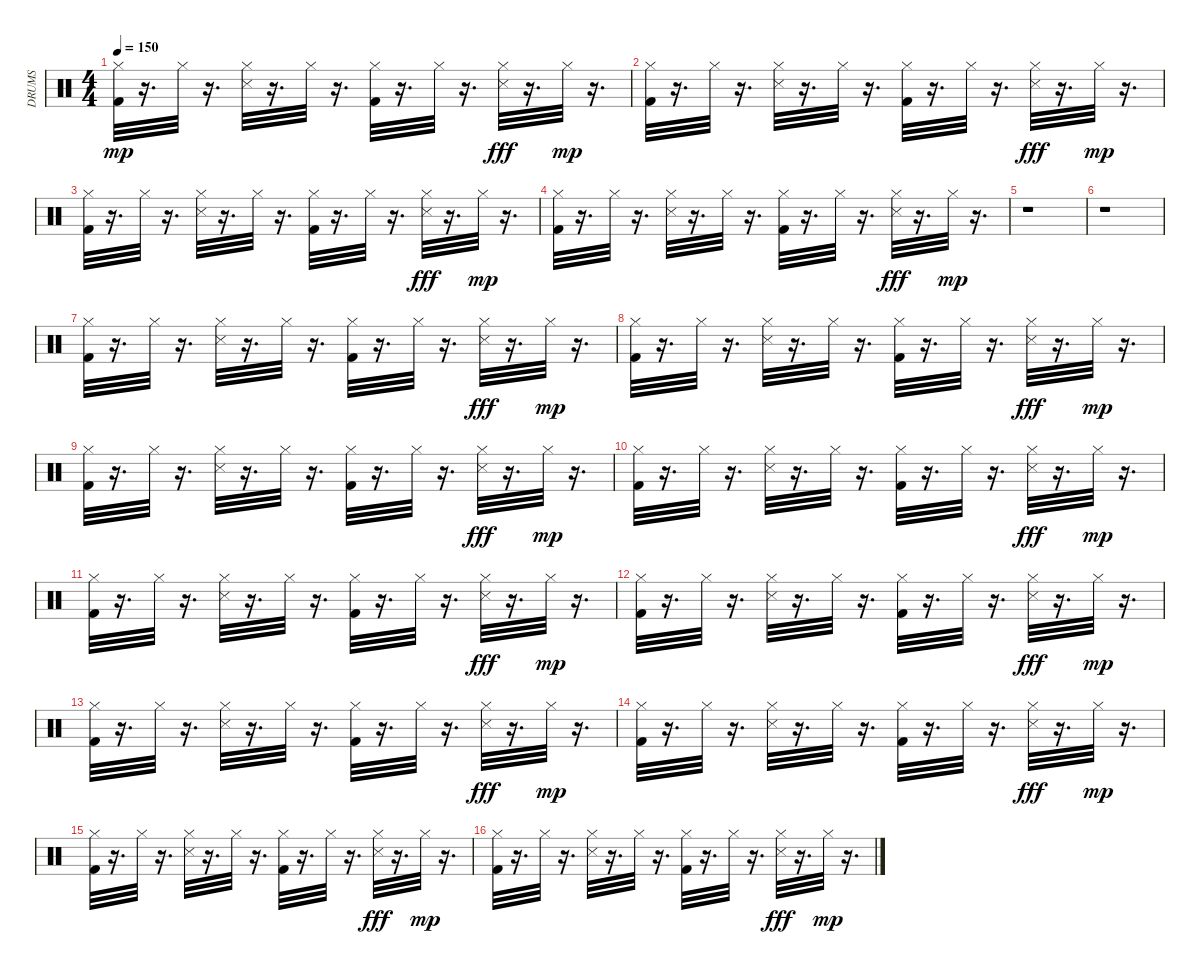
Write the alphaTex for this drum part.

\track ("DRUMS" "DRUMS") {instrument percussion}
\staff {score}
\articulation defaults
\ts (4 4)
\tempo 150
\clef neutral
\ks c
("Hi-Hat (closed)" "Kick (hit) 2").32{dy mp} r.16{d} "Hi-Hat (closed)".32 r.16{d} ("Snare (side stick) 3" "Hi-Hat (closed)").32 r.16{d} "Hi-Hat (closed)".32 r.16{d} ("Kick (hit) 2" "Hi-Hat (closed)").32 r.16{d} "Hi-Hat (closed)".32 r.16{d} ("Hi-Hat (closed)" "Snare (side stick) 3").32{dy fff} r.16{d} "Hi-Hat (closed)".32{dy mp} r.16{d} |
("Hi-Hat (closed)" "Kick (hit) 2").32 r.16{d} "Hi-Hat (closed)".32 r.16{d} ("Snare (side stick) 3" "Hi-Hat (closed)").32 r.16{d} "Hi-Hat (closed)".32 r.16{d} ("Kick (hit) 2" "Hi-Hat (closed)").32 r.16{d} "Hi-Hat (closed)".32 r.16{d} ("Hi-Hat (closed)" "Snare (side stick) 3").32{dy fff} r.16{d} "Hi-Hat (closed)".32{dy mp} r.16{d} |
("Hi-Hat (closed)" "Kick (hit) 2").32 r.16{d} "Hi-Hat (closed)".32 r.16{d} ("Snare (side stick) 3" "Hi-Hat (closed)").32 r.16{d} "Hi-Hat (closed)".32 r.16{d} ("Kick (hit) 2" "Hi-Hat (closed)").32 r.16{d} "Hi-Hat (closed)".32 r.16{d} ("Hi-Hat (closed)" "Snare (side stick) 3").32{dy fff} r.16{d} "Hi-Hat (closed)".32{dy mp} r.16{d} |
("Hi-Hat (closed)" "Kick (hit) 2").32 r.16{d} "Hi-Hat (closed)".32 r.16{d} ("Snare (side stick) 3" "Hi-Hat (closed)").32 r.16{d} "Hi-Hat (closed)".32 r.16{d} ("Kick (hit) 2" "Hi-Hat (closed)").32 r.16{d} "Hi-Hat (closed)".32 r.16{d} ("Hi-Hat (closed)" "Snare (side stick) 3").32{dy fff} r.16{d} "Hi-Hat (closed)".32{dy mp} r.16{d} |
r.1 |
r.1 |
("Hi-Hat (closed)" "Kick (hit) 2").32 r.16{d} "Hi-Hat (closed)".32 r.16{d} ("Snare (side stick) 3" "Hi-Hat (closed)").32 r.16{d} "Hi-Hat (closed)".32 r.16{d} ("Kick (hit) 2" "Hi-Hat (closed)").32 r.16{d} "Hi-Hat (closed)".32 r.16{d} ("Hi-Hat (closed)" "Snare (side stick) 3").32{dy fff} r.16{d} "Hi-Hat (closed)".32{dy mp} r.16{d} |
("Hi-Hat (closed)" "Kick (hit) 2").32 r.16{d} "Hi-Hat (closed)".32 r.16{d} ("Snare (side stick) 3" "Hi-Hat (closed)").32 r.16{d} "Hi-Hat (closed)".32 r.16{d} ("Kick (hit) 2" "Hi-Hat (closed)").32 r.16{d} "Hi-Hat (closed)".32 r.16{d} ("Hi-Hat (closed)" "Snare (side stick) 3").32{dy fff} r.16{d} "Hi-Hat (closed)".32{dy mp} r.16{d} |
("Hi-Hat (closed)" "Kick (hit) 2").32 r.16{d} "Hi-Hat (closed)".32 r.16{d} ("Snare (side stick) 3" "Hi-Hat (closed)").32 r.16{d} "Hi-Hat (closed)".32 r.16{d} ("Kick (hit) 2" "Hi-Hat (closed)").32 r.16{d} "Hi-Hat (closed)".32 r.16{d} ("Hi-Hat (closed)" "Snare (side stick) 3").32{dy fff} r.16{d} "Hi-Hat (closed)".32{dy mp} r.16{d} |
("Hi-Hat (closed)" "Kick (hit) 2").32 r.16{d} "Hi-Hat (closed)".32 r.16{d} ("Snare (side stick) 3" "Hi-Hat (closed)").32 r.16{d} "Hi-Hat (closed)".32 r.16{d} ("Kick (hit) 2" "Hi-Hat (closed)").32 r.16{d} "Hi-Hat (closed)".32 r.16{d} ("Hi-Hat (closed)" "Snare (side stick) 3").32{dy fff} r.16{d} "Hi-Hat (closed)".32{dy mp} r.16{d} |
("Hi-Hat (closed)" "Kick (hit) 2").32 r.16{d} "Hi-Hat (closed)".32 r.16{d} ("Snare (side stick) 3" "Hi-Hat (closed)").32 r.16{d} "Hi-Hat (closed)".32 r.16{d} ("Kick (hit) 2" "Hi-Hat (closed)").32 r.16{d} "Hi-Hat (closed)".32 r.16{d} ("Hi-Hat (closed)" "Snare (side stick) 3").32{dy fff} r.16{d} "Hi-Hat (closed)".32{dy mp} r.16{d} |
("Hi-Hat (closed)" "Kick (hit) 2").32 r.16{d} "Hi-Hat (closed)".32 r.16{d} ("Snare (side stick) 3" "Hi-Hat (closed)").32 r.16{d} "Hi-Hat (closed)".32 r.16{d} ("Kick (hit) 2" "Hi-Hat (closed)").32 r.16{d} "Hi-Hat (closed)".32 r.16{d} ("Hi-Hat (closed)" "Snare (side stick) 3").32{dy fff} r.16{d} "Hi-Hat (closed)".32{dy mp} r.16{d} |
("Hi-Hat (closed)" "Kick (hit) 2").32 r.16{d} "Hi-Hat (closed)".32 r.16{d} ("Snare (side stick) 3" "Hi-Hat (closed)").32 r.16{d} "Hi-Hat (closed)".32 r.16{d} ("Kick (hit) 2" "Hi-Hat (closed)").32 r.16{d} "Hi-Hat (closed)".32 r.16{d} ("Hi-Hat (closed)" "Snare (side stick) 3").32{dy fff} r.16{d} "Hi-Hat (closed)".32{dy mp} r.16{d} |
("Hi-Hat (closed)" "Kick (hit) 2").32 r.16{d} "Hi-Hat (closed)".32 r.16{d} ("Snare (side stick) 3" "Hi-Hat (closed)").32 r.16{d} "Hi-Hat (closed)".32 r.16{d} ("Kick (hit) 2" "Hi-Hat (closed)").32 r.16{d} "Hi-Hat (closed)".32 r.16{d} ("Hi-Hat (closed)" "Snare (side stick) 3").32{dy fff} r.16{d} "Hi-Hat (closed)".32{dy mp} r.16{d} |
("Hi-Hat (closed)" "Kick (hit) 2").32 r.16{d} "Hi-Hat (closed)".32 r.16{d} ("Snare (side stick) 3" "Hi-Hat (closed)").32 r.16{d} "Hi-Hat (closed)".32 r.16{d} ("Kick (hit) 2" "Hi-Hat (closed)").32 r.16{d} "Hi-Hat (closed)".32 r.16{d} ("Hi-Hat (closed)" "Snare (side stick) 3").32{dy fff} r.16{d} "Hi-Hat (closed)".32{dy mp} r.16{d} |
("Hi-Hat (closed)" "Kick (hit) 2").32 r.16{d} "Hi-Hat (closed)".32 r.16{d} ("Snare (side stick) 3" "Hi-Hat (closed)").32 r.16{d} "Hi-Hat (closed)".32 r.16{d} ("Kick (hit) 2" "Hi-Hat (closed)").32 r.16{d} "Hi-Hat (closed)".32 r.16{d} ("Hi-Hat (closed)" "Snare (side stick) 3").32{dy fff} r.16{d} "Hi-Hat (closed)".32{dy mp} r.16{d}
